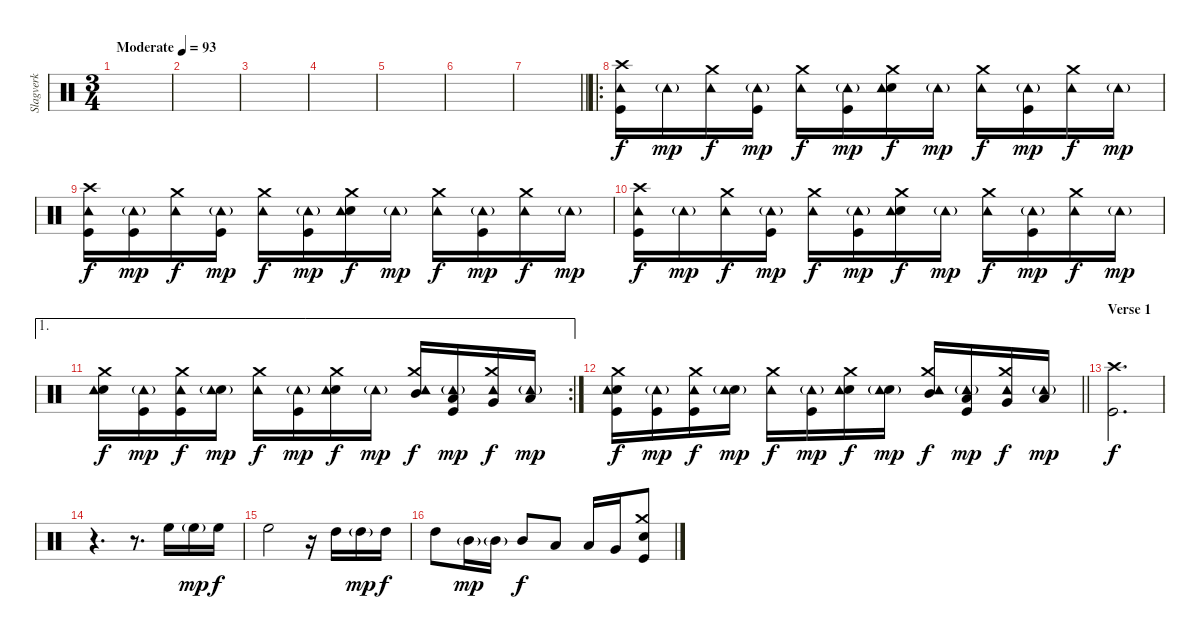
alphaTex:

\track ("Slagverk" "Slagverk") {instrument percussion}
\staff {score}
\articulation defaults
\ts (3 4)
\tempo (93 "Moderate")
\clef neutral
\ks c
|
|
|
|
|
|
\barLineRight lightlight
|
\ro
\section ("" "")
("Crash high (hit)" "Tambourine (hit)" "Kick (hit)").16 "Tambourine (hit)"{g}.16{dy mp} ("Crash medium (hit)" "Tambourine (hit)").16{dy f} ("Tambourine (hit)"{g} "Kick (hit)").16{dy mp} ("Crash medium (hit)" "Tambourine (hit)").16{dy f} ("Kick (hit)" "Tambourine (hit)"{g}).16{dy mp} ("Crash medium (hit)" "Electric Snare (hit)" "Tambourine (hit)").16{dy f} "Tambourine (hit)"{g}.16{dy mp} ("Crash medium (hit)" "Tambourine (hit)").16{dy f} ("Kick (hit)" "Tambourine (hit)"{g}).16{dy mp} ("Crash medium (hit)" "Tambourine (hit)").16{dy f} "Tambourine (hit)"{g}.16{dy mp} |
("Crash high (hit)" "Kick (hit)" "Tambourine (hit)").16{dy f} ("Kick (hit)" "Tambourine (hit)"{g}).16{dy mp} ("Crash medium (hit)" "Tambourine (hit)").16{dy f} ("Kick (hit)" "Tambourine (hit)"{g}).16{dy mp} ("Crash medium (hit)" "Tambourine (hit)").16{dy f} ("Kick (hit)" "Tambourine (hit)"{g}).16{dy mp} ("Crash medium (hit)" "Electric Snare (hit)" "Tambourine (hit)").16{dy f} "Tambourine (hit)"{g}.16{dy mp} ("Crash medium (hit)" "Tambourine (hit)").16{dy f} ("Kick (hit)" "Tambourine (hit)"{g}).16{dy mp} ("Crash medium (hit)" "Tambourine (hit)").16{dy f} "Tambourine (hit)"{g}.16{dy mp} |
("Crash high (hit)" "Kick (hit)" "Tambourine (hit)").16{dy f} "Tambourine (hit)"{g}.16{dy mp} ("Crash medium (hit)" "Tambourine (hit)").16{dy f} ("Kick (hit)" "Tambourine (hit)"{g}).16{dy mp} ("Crash medium (hit)" "Tambourine (hit)").16{dy f} ("Kick (hit)" "Tambourine (hit)"{g}).16{dy mp} ("Crash medium (hit)" "Electric Snare (hit)" "Tambourine (hit)").16{dy f} "Tambourine (hit)"{g}.16{dy mp} ("Crash medium (hit)" "Tambourine (hit)").16{dy f} ("Kick (hit)" "Tambourine (hit)"{g}).16{dy mp} ("Crash medium (hit)" "Tambourine (hit)").16{dy f} "Tambourine (hit)"{g}.16{dy mp} |
\ae 1
\rc 2
("Crash medium (hit)" "Electric Snare (hit)" "Tambourine (hit)").16{dy f} ("Kick (hit)" "Tambourine (hit)"{g}).16{dy mp} ("Crash medium (hit)" "Kick (hit)" "Tambourine (hit)").16{dy f} ("Electric Snare (hit)" "Tambourine (hit)"{g}).16{dy mp} ("Crash medium (hit)" "Tambourine (hit)").16{dy f} ("Kick (hit)" "Tambourine (hit)"{g}).16{dy mp} ("Crash medium (hit)" "Electric Snare (hit)" "Tambourine (hit)").16{dy f} "Tambourine (hit)"{g}.16{dy mp} ("Crash medium (hit)" "Mid Tom (hit)" "Tambourine (hit)").16{dy f} ("Kick (hit)" "Low Tom (hit)" "Tambourine (hit)"{g}).16{dy mp} ("Crash medium (hit)" "Very Low Tom (hit)" "Tambourine (hit)").16{dy f} ("Low Floor Tom (hit)" "Tambourine (hit)"{g}).16{dy mp} |
\barLineRight lightlight
("Crash medium (hit)" "Electric Snare (hit)" "Kick (hit)" "Tambourine (hit)").16{dy f} ("Kick (hit)" "Tambourine (hit)"{g}).16{dy mp} ("Crash medium (hit)" "Kick (hit)" "Tambourine (hit)").16{dy f} ("Electric Snare (hit)" "Tambourine (hit)"{g}).16{dy mp} ("Crash medium (hit)" "Tambourine (hit)").16{dy f} ("Kick (hit)" "Tambourine (hit)"{g}).16{dy mp} ("Crash medium (hit)" "Electric Snare (hit)" "Tambourine (hit)").16{dy f} ("Electric Snare (hit)" "Tambourine (hit)"{g}).16{dy mp} ("Crash medium (hit)" "Mid Tom (hit)" "Tambourine (hit)").16{dy f} ("Kick (hit)" "Low Tom (hit)" "Tambourine (hit)"{g}).16{dy mp} ("Crash medium (hit)" "Very Low Tom (hit)" "Tambourine (hit)").16{dy f} ("Low Floor Tom (hit)" "Tambourine (hit)"{g}).16{dy mp} |
\section ("" "Verse 1")
("Crash high (hit)" "Kick (hit)").2{d dy f} |
r.4{d} r.8{d} "High Floor Tom (hit)".16 "High Floor Tom (hit)"{g}.16{dy mp} "High Floor Tom (hit)".16{dy f} |
"High Floor Tom (hit)".2 r.16 "High Tom (hit)".16 "High Tom (hit)"{g}.16{dy mp} "High Tom (hit)".16{dy f} |
"High Tom (hit)".8 "Mid Tom (hit)"{g}.16{dy mp} "Mid Tom (hit)"{g}.16 "Mid Tom (hit)".8{dy f} "Low Tom (hit)".8 "Low Tom (hit)".16 "Very Low Tom (hit)".16 ("Kick (hit)" "Electric Snare (hit)" "Crash medium (hit)").8
